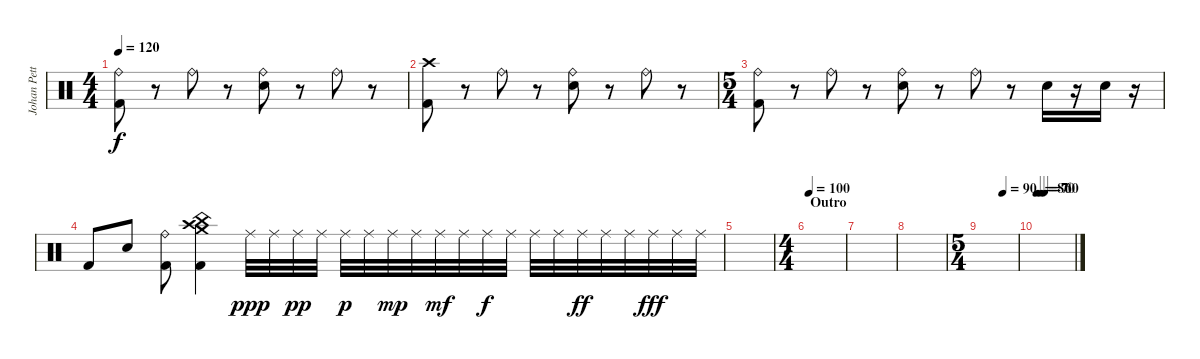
\track ("Johan Petterson" "Johan Pett") {instrument percussion}
\staff {score}
\articulation defaults
\ts (4 4)
\tempo 120
\clef neutral
\ks c
("Ride (bell)" "Kick (hit) 2").8{dy f volume 8} r.8 "Ride (bell)".8 r.8 ("Ride (bell)" "Snare (hit) 2").8 r.8 "Ride (bell)".8 r.8 |
("Crash high (hit)" "Kick (hit) 2").8{volume 4} r.8 "Ride (bell)".8 r.8 ("Ride (bell)" "Snare (hit) 2").8 r.8 "Ride (bell)".8 r.8 |
\ts (5 4)
("Ride (bell)" "Kick (hit) 2").8{volume 2} r.8 "Ride (bell)".8 r.8 ("Ride (bell)" "Snare (hit) 2").8 r.8 "Ride (bell)".8 r.8 "Snare (hit) 2".16 r.16 "Snare (hit) 2".16 r.16 |
"Kick (hit) 2".8{volume 0} "Snare (hit) 2".8 ("Ride (bell)" "Kick (hit) 2").8 ("Crash high (hit)" "Crash medium (hit)" "China (hit)" "Kick (hit) 2").4 "Ride (middle)".32{dy ppp} "Ride (middle)".32 "Ride (middle)".32{dy pp} "Ride (middle)".32 "Ride (middle)".32{dy p} "Ride (middle)".32 "Ride (middle)".32{dy mp} "Ride (middle)".32 "Ride (middle)".32{dy mf} "Ride (middle)".32 "Ride (middle)".32{dy f} "Ride (middle)".32 "Ride (middle)".32 "Ride (middle)".32 "Ride (middle)".32{dy ff} "Ride (middle)".32 "Ride (middle)".32 "Ride (middle)".32{dy fff} "Ride (middle)".32 "Ride (middle)".32 |
|
\ts (4 4)
\section ("" "Outro")
\tempo 100
|
|
|
\ts (5 4)
\tempo (90 0.6)
|
\tempo 80
\tempo (70 0.1)
\tempo (60 0.2)
